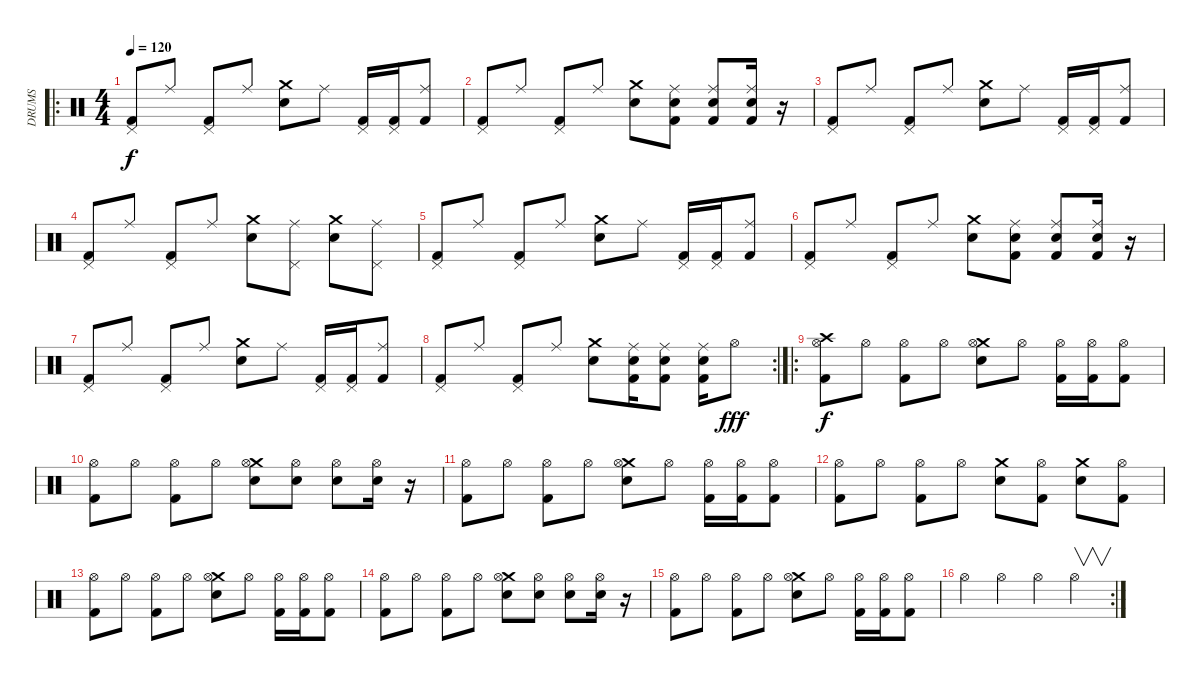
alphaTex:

\track ("DRUMS" "DRUMS") {instrument percussion}
\staff {score}
\articulation defaults
\ro
\ts (4 4)
\tempo 120
\clef neutral
\ks c
("Kick (hit) 2" "Pedal Hi-Hat (hit)").8{dy f} "Ride (middle)".8 ("Kick (hit) 2" "Pedal Hi-Hat (hit)").8 "Ride (middle)".8 ("Crash medium (hit)" "Electric Snare (hit)").8 "Ride (middle)".8 ("Kick (hit) 2" "Pedal Hi-Hat (hit)").16 ("Kick (hit) 2" "Pedal Hi-Hat (hit)").16 ("Kick (hit) 2" "Ride (middle)").8 |
("Kick (hit) 2" "Pedal Hi-Hat (hit)").8 "Ride (middle)".8 ("Kick (hit) 2" "Pedal Hi-Hat (hit)").8 "Ride (middle)".8 ("Crash medium (hit)" "Electric Snare (hit)").8 ("Ride (middle)" "Electric Snare (hit)" "Kick (hit) 2").8 ("Ride (middle)" "Electric Snare (hit)" "Kick (hit) 2").8 ("Ride (middle)" "Electric Snare (hit)" "Kick (hit) 2").16 r.16 |
("Kick (hit) 2" "Pedal Hi-Hat (hit)").8 "Ride (middle)".8 ("Kick (hit) 2" "Pedal Hi-Hat (hit)").8 "Ride (middle)".8 ("Crash medium (hit)" "Electric Snare (hit)").8 "Ride (middle)".8 ("Kick (hit) 2" "Pedal Hi-Hat (hit)").16 ("Kick (hit) 2" "Pedal Hi-Hat (hit)").16 ("Ride (middle)" "Kick (hit) 2").8 |
("Kick (hit) 2" "Pedal Hi-Hat (hit)").8 "Ride (middle)".8 ("Kick (hit) 2" "Pedal Hi-Hat (hit)").8 "Ride (middle)".8 ("Crash medium (hit)" "Electric Snare (hit)").8 ("Ride (middle)" "Pedal Hi-Hat (hit)").8 ("Crash medium (hit)" "Electric Snare (hit)").8 ("Ride (middle)" "Pedal Hi-Hat (hit)").8 |
("Kick (hit) 2" "Pedal Hi-Hat (hit)").8 "Ride (middle)".8 ("Kick (hit) 2" "Pedal Hi-Hat (hit)").8 "Ride (middle)".8 ("Crash medium (hit)" "Electric Snare (hit)").8 "Ride (middle)".8 ("Kick (hit) 2" "Pedal Hi-Hat (hit)").16 ("Kick (hit) 2" "Pedal Hi-Hat (hit)").16 ("Kick (hit) 2" "Ride (middle)").8 |
("Kick (hit) 2" "Pedal Hi-Hat (hit)").8 "Ride (middle)".8 ("Kick (hit) 2" "Pedal Hi-Hat (hit)").8 "Ride (middle)".8 ("Crash medium (hit)" "Electric Snare (hit)").8 ("Ride (middle)" "Electric Snare (hit)" "Kick (hit) 2").8 ("Ride (middle)" "Electric Snare (hit)" "Kick (hit) 2").8 ("Ride (middle)" "Electric Snare (hit)" "Kick (hit) 2").16 r.16 |
("Kick (hit) 2" "Pedal Hi-Hat (hit)").8 "Ride (middle)".8 ("Kick (hit) 2" "Pedal Hi-Hat (hit)").8 "Ride (middle)".8 ("Crash medium (hit)" "Electric Snare (hit)").8 "Ride (middle)".8 ("Kick (hit) 2" "Pedal Hi-Hat (hit)").16 ("Kick (hit) 2" "Pedal Hi-Hat (hit)").16 ("Kick (hit) 2" "Ride (middle)").8 |
\rc 2
("Kick (hit) 2" "Pedal Hi-Hat (hit)").8 "Ride (middle)".8 ("Kick (hit) 2" "Pedal Hi-Hat (hit)").8 "Ride (middle)".8 ("Crash medium (hit)" "Electric Snare (hit)").8 ("Ride (middle)" "Electric Snare (hit)" "Kick (hit) 2").16 ("Ride (middle)" "Electric Snare (hit)" "Kick (hit) 2").8 ("Ride (middle)" "Electric Snare (hit)" "Kick (hit) 2").16 "Hi-Hat (open)".8{dy fff} |
\ro
("Crash high (hit)" "Kick (hit) 2" "Hi-Hat (open)").8{dy f} "Hi-Hat (open)".8 ("Kick (hit) 2" "Hi-Hat (open)").8 "Hi-Hat (open)".8 ("Crash medium (hit)" "Electric Snare (hit)" "Hi-Hat (open)").8 "Hi-Hat (open)".8 ("Kick (hit) 2" "Hi-Hat (open)").16 ("Kick (hit) 2" "Hi-Hat (open)").16 ("Kick (hit) 2" "Hi-Hat (open)").8 |
("Kick (hit) 2" "Hi-Hat (open)").8 "Hi-Hat (open)".8 ("Kick (hit) 2" "Hi-Hat (open)").8 "Hi-Hat (open)".8 ("Crash medium (hit)" "Electric Snare (hit)" "Hi-Hat (open)").8 ("Electric Snare (hit)" "Hi-Hat (open)").8 ("Electric Snare (hit)" "Hi-Hat (open)").8 ("Electric Snare (hit)" "Hi-Hat (open)").16 r.16 |
("Kick (hit) 2" "Hi-Hat (open)").8 "Hi-Hat (open)".8 ("Kick (hit) 2" "Hi-Hat (open)").8 "Hi-Hat (open)".8 ("Crash medium (hit)" "Electric Snare (hit)" "Hi-Hat (open)").8 "Hi-Hat (open)".8 ("Kick (hit) 2" "Hi-Hat (open)").16 ("Kick (hit) 2" "Hi-Hat (open)").16 ("Kick (hit) 2" "Hi-Hat (open)").8 |
("Kick (hit) 2" "Hi-Hat (open)").8 "Hi-Hat (open)".8 ("Kick (hit) 2" "Hi-Hat (open)").8 "Hi-Hat (open)".8 ("Crash medium (hit)" "Electric Snare (hit)").8 ("Kick (hit) 2" "Hi-Hat (open)").8 ("Crash medium (hit)" "Electric Snare (hit)").8 ("Kick (hit) 2" "Hi-Hat (open)").8 |
("Kick (hit) 2" "Hi-Hat (open)").8 "Hi-Hat (open)".8 ("Kick (hit) 2" "Hi-Hat (open)").8 "Hi-Hat (open)".8 ("Crash medium (hit)" "Electric Snare (hit)" "Hi-Hat (open)").8 "Hi-Hat (open)".8 ("Kick (hit) 2" "Hi-Hat (open)").16 ("Kick (hit) 2" "Hi-Hat (open)").16 ("Kick (hit) 2" "Hi-Hat (open)").8 |
("Kick (hit) 2" "Hi-Hat (open)").8 "Hi-Hat (open)".8 ("Kick (hit) 2" "Hi-Hat (open)").8 "Hi-Hat (open)".8 ("Crash medium (hit)" "Electric Snare (hit)" "Hi-Hat (open)").8 ("Electric Snare (hit)" "Hi-Hat (open)").8 ("Electric Snare (hit)" "Hi-Hat (open)").8 ("Electric Snare (hit)" "Hi-Hat (open)").16 r.16 |
("Kick (hit) 2" "Hi-Hat (open)").8 "Hi-Hat (open)".8 ("Kick (hit) 2" "Hi-Hat (open)").8 "Hi-Hat (open)".8 ("Crash medium (hit)" "Electric Snare (hit)" "Hi-Hat (open)").8 "Hi-Hat (open)".8 ("Kick (hit) 2" "Hi-Hat (open)").16 ("Kick (hit) 2" "Hi-Hat (open)").16 ("Kick (hit) 2" "Hi-Hat (open)").8 |
\rc 2 "Hi-Hat (open)".4 "Hi-Hat (open)".4 "Hi-Hat (open)".4 "Hi-Hat (open)".4{v}
